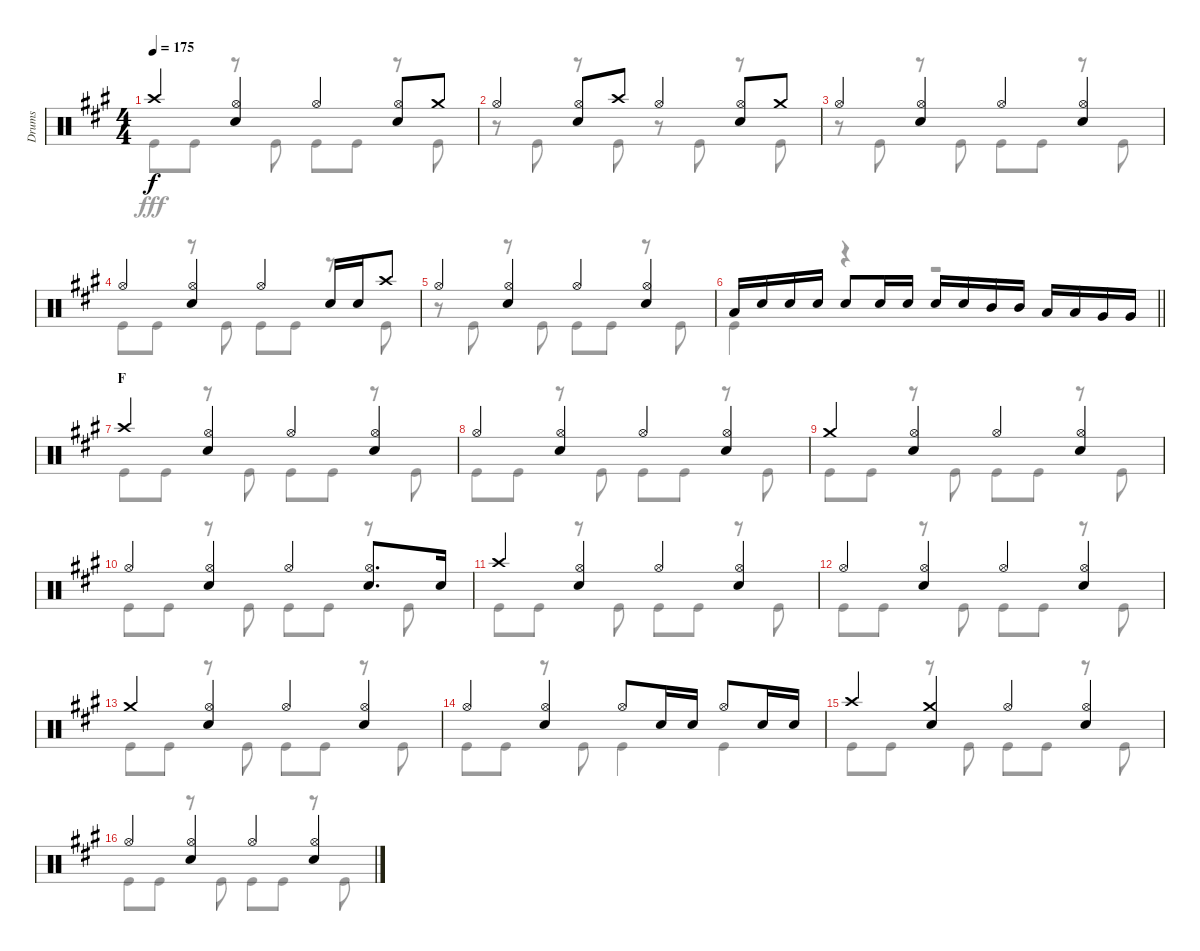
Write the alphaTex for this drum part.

\track ("Drums" "Drums") {instrument percussion}
\staff {score}
\articulation defaults
\voice
\ts (4 4)
\tempo 175
\clef neutral
\ks a "Crash high (hit)".4{dy f}
("Hi-Hat (open)" "Snare (hit) 2").4 "Hi-Hat (open)".4 ("Hi-Hat (open)" "Snare (hit) 2").8 "Crash medium (hit)".8 |
"Hi-Hat (open)".4 ("Hi-Hat (open)" "Snare (hit) 2").8 "Crash high (hit)".8 "Hi-Hat (open)".4 ("Hi-Hat (open)" "Snare (hit) 2").8 "Crash medium (hit)".8 |
"Hi-Hat (open)".4 ("Hi-Hat (open)" "Snare (hit) 2").4 "Hi-Hat (open)".4 ("Hi-Hat (open)" "Snare (hit) 2").4 |
"Hi-Hat (open)".4 ("Hi-Hat (open)" "Snare (hit) 2").4 "Hi-Hat (open)".4 "Snare (hit) 2".16 "Snare (hit) 2".16 "Crash high (hit)".8 |
"Hi-Hat (open)".4 ("Hi-Hat (open)" "Snare (hit) 2").4 "Hi-Hat (open)".4 ("Hi-Hat (open)" "Snare (hit) 2").4 |
\barLineRight lightlight "Low Tom (hit)".16 "Snare (hit) 2".16 "Snare (hit) 2".16 "Snare (hit) 2".16 "Snare (hit) 2".8 "Snare (hit) 2".16 "Snare (hit) 2".16 "Snare (hit) 2".16 "Snare (hit) 2".16 "Mid Tom (hit)".16 "Mid Tom (hit)".16 "Low Tom (hit)".16 "Low Tom (hit)".16 "Very Low Tom (hit)".16 "Very Low Tom (hit)".16
|
\section ("" "F")
"Crash high (hit)".4 ("Hi-Hat (open)" "Snare (hit) 2").4 "Hi-Hat (open)".4 ("Hi-Hat (open)" "Snare (hit) 2").4 |
"Hi-Hat (open)".4 ("Hi-Hat (open)" "Snare (hit) 2").4 "Hi-Hat (open)".4 ("Hi-Hat (open)" "Snare (hit) 2").4 |
"Crash medium (hit)".4 ("Hi-Hat (open)" "Snare (hit) 2").4 "Hi-Hat (open)".4 ("Hi-Hat (open)" "Snare (hit) 2").4 |
"Hi-Hat (open)".4 ("Hi-Hat (open)" "Snare (hit) 2").4 "Hi-Hat (open)".4 ("Hi-Hat (open)" "Snare (hit) 2").8{d} "Snare (hit) 2".16 |
"Crash high (hit)".4 ("Hi-Hat (open)" "Snare (hit) 2").4 "Hi-Hat (open)".4 ("Hi-Hat (open)" "Snare (hit) 2").4 |
"Hi-Hat (open)".4 ("Hi-Hat (open)" "Snare (hit) 2").4 "Hi-Hat (open)".4 ("Hi-Hat (open)" "Snare (hit) 2").4 |
"Crash medium (hit)".4 ("Hi-Hat (open)" "Snare (hit) 2").4 "Hi-Hat (open)".4 ("Hi-Hat (open)" "Snare (hit) 2").4 |
"Hi-Hat (open)".4 ("Hi-Hat (open)" "Snare (hit) 2").4 "Hi-Hat (open)".8 "Snare (hit) 2".16 "Snare (hit) 2".16 "Hi-Hat (open)".8 "Snare (hit) 2".16 "Snare (hit) 2".16 |
"Crash high (hit)".4 ("Crash medium (hit)" "Snare (hit) 2").4 "Hi-Hat (open)".4 ("Hi-Hat (open)" "Snare (hit) 2").4 |
"Hi-Hat (open)".4 ("Hi-Hat (open)" "Snare (hit) 2").4 "Hi-Hat (open)".4 ("Hi-Hat (open)" "Snare (hit) 2").4
\voice
\clef neutral
\ottava regular
\simile none
\ks a "Kick (hit)".8{dy fff} "Kick (hit)".8
r.8 "Kick (hit)".8 "Kick (hit)".8 "Kick (hit)".8 r.8 "Kick (hit)".8 |
r.8 "Kick (hit)".8 r.8 "Kick (hit)".8 r.8 "Kick (hit)".8 r.8 "Kick (hit)".8 |
r.8 "Kick (hit)".8 r.8 "Kick (hit)".8 "Kick (hit)".8 "Kick (hit)".8 r.8 "Kick (hit)".8 |
"Kick (hit)".8 "Kick (hit)".8 r.8 "Kick (hit)".8 "Kick (hit)".8 "Kick (hit)".8 r.8 "Kick (hit)".8 |
r.8 "Kick (hit)".8 r.8 "Kick (hit)".8 "Kick (hit)".8 "Kick (hit)".8 r.8 "Kick (hit)".8 |
\barLineRight lightlight "Kick (hit)".4
r.4 r.2 |
"Kick (hit)".8 "Kick (hit)".8 r.8 "Kick (hit)".8 "Kick (hit)".8 "Kick (hit)".8 r.8 "Kick (hit)".8 |
"Kick (hit)".8 "Kick (hit)".8 r.8 "Kick (hit)".8 "Kick (hit)".8 "Kick (hit)".8 r.8 "Kick (hit)".8 |
"Kick (hit)".8 "Kick (hit)".8 r.8 "Kick (hit)".8 "Kick (hit)".8 "Kick (hit)".8 r.8 "Kick (hit)".8 |
"Kick (hit)".8 "Kick (hit)".8 r.8 "Kick (hit)".8 "Kick (hit)".8 "Kick (hit)".8 r.8 "Kick (hit)".8 |
"Kick (hit)".8 "Kick (hit)".8 r.8 "Kick (hit)".8 "Kick (hit)".8 "Kick (hit)".8 r.8 "Kick (hit)".8 |
"Kick (hit)".8 "Kick (hit)".8 r.8 "Kick (hit)".8 "Kick (hit)".8 "Kick (hit)".8 r.8 "Kick (hit)".8 |
"Kick (hit)".8 "Kick (hit)".8 r.8 "Kick (hit)".8 "Kick (hit)".8 "Kick (hit)".8 r.8 "Kick (hit)".8 |
"Kick (hit)".8 "Kick (hit)".8 r.8 "Kick (hit)".8 "Kick (hit)".4 "Kick (hit)".4 |
"Kick (hit)".8 "Kick (hit)".8 r.8 "Kick (hit)".8 "Kick (hit)".8 "Kick (hit)".8 r.8 "Kick (hit)".8 |
"Kick (hit)".8 "Kick (hit)".8 r.8 "Kick (hit)".8 "Kick (hit)".8 "Kick (hit)".8 r.8 "Kick (hit)".8
